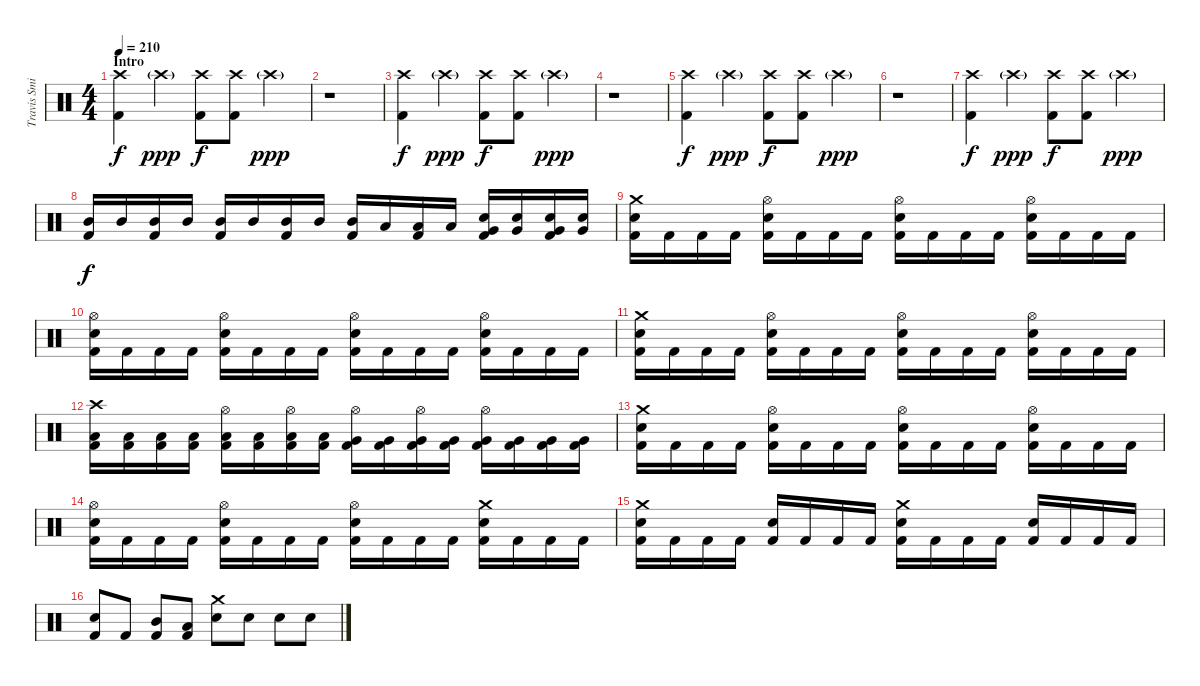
\track ("Travis Smith" "Travis Smi") {instrument percussion}
\staff {score}
\articulation defaults
\ts (4 4)
\section ("" "Intro")
\tempo 210
\clef neutral
\ks c
("Crash high (hit)" "Kick (hit) 2").4{dy f} "Crash high (hit)"{g}.4{dy ppp} ("Crash high (hit)" "Kick (hit) 2").8{dy f} ("Crash high (hit)" "Kick (hit) 2").8 "Crash high (hit)"{g}.4{dy ppp} |
r.1 |
("Crash high (hit)" "Kick (hit) 2").4{dy f} "Crash high (hit)"{g}.4{dy ppp} ("Crash high (hit)" "Kick (hit) 2").8{dy f} ("Crash high (hit)" "Kick (hit) 2").8 "Crash high (hit)"{g}.4{dy ppp} |
r.1 |
("Crash high (hit)" "Kick (hit) 2").4{dy f} "Crash high (hit)"{g}.4{dy ppp} ("Crash high (hit)" "Kick (hit) 2").8{dy f} ("Crash high (hit)" "Kick (hit) 2").8 "Crash high (hit)"{g}.4{dy ppp} |
r.1 |
("Crash high (hit)" "Kick (hit) 2").4{dy f} "Crash high (hit)"{g}.4{dy ppp} ("Crash high (hit)" "Kick (hit) 2").8{dy f} ("Crash high (hit)" "Kick (hit) 2").8 "Crash high (hit)"{g}.4{dy ppp} |
("Mid Tom (hit)" "Kick (hit) 2").16{dy f} "Mid Tom (hit)".16 ("Mid Tom (hit)" "Kick (hit) 2").16 "Mid Tom (hit)".16 ("Mid Tom (hit)" "Kick (hit) 2").16 "Mid Tom (hit)".16 ("Mid Tom (hit)" "Kick (hit) 2").16 "Mid Tom (hit)".16 ("Mid Tom (hit)" "Kick (hit) 2").16 "Low Tom (hit)".16 ("Low Tom (hit)" "Kick (hit) 2").16 "Low Tom (hit)".16 ("Snare (hit) 2" "Very Low Tom (hit)" "Kick (hit) 2").16 ("Snare (hit) 2" "Very Low Tom (hit)").16 ("Snare (hit) 2" "Very Low Tom (hit)" "Kick (hit) 2").16 ("Snare (hit) 2" "Very Low Tom (hit)").16 |
("Crash medium (hit)" "Snare (hit) 2" "Kick (hit) 2").16 "Kick (hit) 2".16 "Kick (hit) 2".16 "Kick (hit) 2".16 ("Hi-Hat (open)" "Snare (hit) 2" "Kick (hit) 2").16 "Kick (hit) 2".16 "Kick (hit) 2".16 "Kick (hit) 2".16 ("Hi-Hat (open)" "Snare (hit) 2" "Kick (hit) 2").16 "Kick (hit) 2".16 "Kick (hit) 2".16 "Kick (hit) 2".16 ("Hi-Hat (open)" "Snare (hit) 2" "Kick (hit) 2").16 "Kick (hit) 2".16 "Kick (hit) 2".16 "Kick (hit) 2".16 |
("Hi-Hat (open)" "Snare (hit) 2" "Kick (hit) 2").16 "Kick (hit) 2".16 "Kick (hit) 2".16 "Kick (hit) 2".16 ("Hi-Hat (open)" "Snare (hit) 2" "Kick (hit) 2").16 "Kick (hit) 2".16 "Kick (hit) 2".16 "Kick (hit) 2".16 ("Hi-Hat (open)" "Snare (hit) 2" "Kick (hit) 2").16 "Kick (hit) 2".16 "Kick (hit) 2".16 "Kick (hit) 2".16 ("Hi-Hat (open)" "Snare (hit) 2" "Kick (hit) 2").16 "Kick (hit) 2".16 "Kick (hit) 2".16 "Kick (hit) 2".16 |
("Crash medium (hit)" "Snare (hit) 2" "Kick (hit) 2").16 "Kick (hit) 2".16 "Kick (hit) 2".16 "Kick (hit) 2".16 ("Hi-Hat (open)" "Snare (hit) 2" "Kick (hit) 2").16 "Kick (hit) 2".16 "Kick (hit) 2".16 "Kick (hit) 2".16 ("Hi-Hat (open)" "Snare (hit) 2" "Kick (hit) 2").16 "Kick (hit) 2".16 "Kick (hit) 2".16 "Kick (hit) 2".16 ("Hi-Hat (open)" "Snare (hit) 2" "Kick (hit) 2").16 "Kick (hit) 2".16 "Kick (hit) 2".16 "Kick (hit) 2".16 |
("Crash high (hit)" "Low Tom (hit)" "Kick (hit) 2").16 ("Low Tom (hit)" "Kick (hit) 2").16 ("Low Tom (hit)" "Kick (hit) 2").16 ("Low Tom (hit)" "Kick (hit) 2").16 ("Hi-Hat (open)" "Low Tom (hit)" "Kick (hit) 2").16 ("Low Tom (hit)" "Kick (hit) 2").16 ("Hi-Hat (open)" "Low Tom (hit)" "Kick (hit) 2").16 ("Low Tom (hit)" "Kick (hit) 2").16 ("Hi-Hat (open)" "Very Low Tom (hit)" "Kick (hit) 2").16 ("Very Low Tom (hit)" "Kick (hit) 2").16 ("Hi-Hat (open)" "Very Low Tom (hit)" "Kick (hit) 2").16 ("Very Low Tom (hit)" "Kick (hit) 2").16 ("Hi-Hat (open)" "Very Low Tom (hit)" "Kick (hit) 2").16 ("Very Low Tom (hit)" "Kick (hit) 2").16 ("Very Low Tom (hit)" "Kick (hit) 2").16 ("Very Low Tom (hit)" "Kick (hit) 2").16 |
("Crash medium (hit)" "Snare (hit) 2" "Kick (hit) 2").16 "Kick (hit) 2".16 "Kick (hit) 2".16 "Kick (hit) 2".16 ("Hi-Hat (open)" "Snare (hit) 2" "Kick (hit) 2").16 "Kick (hit) 2".16 "Kick (hit) 2".16 "Kick (hit) 2".16 ("Hi-Hat (open)" "Snare (hit) 2" "Kick (hit) 2").16 "Kick (hit) 2".16 "Kick (hit) 2".16 "Kick (hit) 2".16 ("Hi-Hat (open)" "Snare (hit) 2" "Kick (hit) 2").16 "Kick (hit) 2".16 "Kick (hit) 2".16 "Kick (hit) 2".16 |
("Hi-Hat (open)" "Snare (hit) 2" "Kick (hit) 2").16 "Kick (hit) 2".16 "Kick (hit) 2".16 "Kick (hit) 2".16 ("Hi-Hat (open)" "Snare (hit) 2" "Kick (hit) 2").16 "Kick (hit) 2".16 "Kick (hit) 2".16 "Kick (hit) 2".16 ("Hi-Hat (open)" "Snare (hit) 2" "Kick (hit) 2").16 "Kick (hit) 2".16 "Kick (hit) 2".16 "Kick (hit) 2".16 ("Crash medium (hit)" "Snare (hit) 2" "Kick (hit) 2").16 "Kick (hit) 2".16 "Kick (hit) 2".16 "Kick (hit) 2".16 |
("Crash medium (hit)" "Snare (hit) 2" "Kick (hit) 2").16 "Kick (hit) 2".16 "Kick (hit) 2".16 "Kick (hit) 2".16 ("Snare (hit) 2" "Kick (hit) 2").16 "Kick (hit) 2".16 "Kick (hit) 2".16 "Kick (hit) 2".16 ("Crash medium (hit)" "Snare (hit) 2" "Kick (hit) 2").16 "Kick (hit) 2".16 "Kick (hit) 2".16 "Kick (hit) 2".16 ("Snare (hit) 2" "Kick (hit) 2").16 "Kick (hit) 2".16 "Kick (hit) 2".16 "Kick (hit) 2".16 |
("Snare (hit) 2" "Kick (hit) 2").8 "Kick (hit) 2".8 ("Mid Tom (hit)" "Kick (hit) 2").8 ("Low Tom (hit)" "Kick (hit) 2").8 ("Crash medium (hit)" "Snare (hit) 2").8 "Snare (hit) 2".8 "Snare (hit) 2".8 "Snare (hit) 2".8
